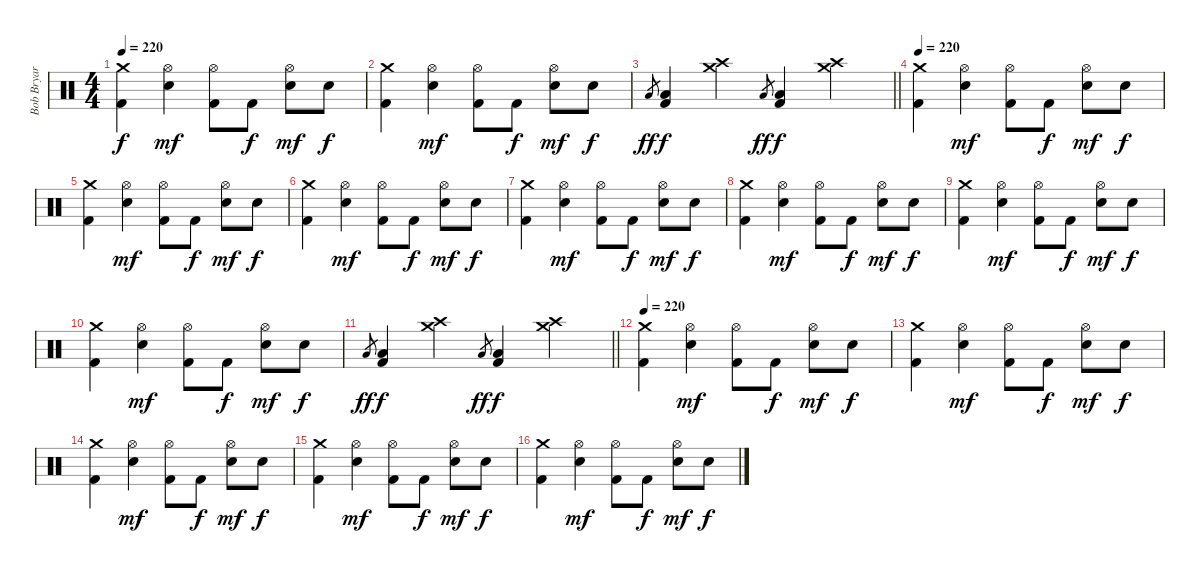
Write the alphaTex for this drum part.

\track ("Bob Bryar" "Bob Bryar") {instrument percussion}
\staff {score}
\articulation defaults
\ts (4 4)
\tempo 220
\clef neutral
\ks c
("Crash medium (hit)" "Kick (hit) 2").4{dy f} ("Hi-Hat (open)" "Electric Snare (hit)").4{dy mf} ("Hi-Hat (open)" "Kick (hit) 2").8 "Kick (hit) 2".8{dy f} ("Hi-Hat (open)" "Electric Snare (hit)").8{dy mf} "Electric Snare (hit)".8{dy f} |
("Crash medium (hit)" "Kick (hit) 2").4 ("Hi-Hat (open)" "Electric Snare (hit)").4{dy mf} ("Hi-Hat (open)" "Kick (hit) 2").8 "Kick (hit) 2".8{dy f} ("Hi-Hat (open)" "Electric Snare (hit)").8{dy mf} "Electric Snare (hit)".8{dy f} |
\barLineRight lightlight "Low Floor Tom (hit)".8{gr dy ff}
("Low Floor Tom (hit)" "Kick (hit) 2").4{dy f} ("Crash medium (hit)" "Crash high (hit)").4 "Low Floor Tom (hit)".8{gr dy ff} ("Low Floor Tom (hit)" "Kick (hit) 2").4{dy f} ("Crash medium (hit)" "Crash high (hit)").4 |
\tempo 220
("Crash medium (hit)" "Kick (hit) 2").4 ("Hi-Hat (open)" "Electric Snare (hit)").4{dy mf} ("Hi-Hat (open)" "Kick (hit) 2").8 "Kick (hit) 2".8{dy f} ("Hi-Hat (open)" "Electric Snare (hit)").8{dy mf} "Electric Snare (hit)".8{dy f} |
("Crash medium (hit)" "Kick (hit) 2").4 ("Hi-Hat (open)" "Electric Snare (hit)").4{dy mf} ("Hi-Hat (open)" "Kick (hit) 2").8 "Kick (hit) 2".8{dy f} ("Hi-Hat (open)" "Electric Snare (hit)").8{dy mf} "Electric Snare (hit)".8{dy f} |
("Crash medium (hit)" "Kick (hit) 2").4 ("Hi-Hat (open)" "Electric Snare (hit)").4{dy mf} ("Hi-Hat (open)" "Kick (hit) 2").8 "Kick (hit) 2".8{dy f} ("Hi-Hat (open)" "Electric Snare (hit)").8{dy mf} "Electric Snare (hit)".8{dy f} |
("Crash medium (hit)" "Kick (hit) 2").4 ("Hi-Hat (open)" "Electric Snare (hit)").4{dy mf} ("Hi-Hat (open)" "Kick (hit) 2").8 "Kick (hit) 2".8{dy f} ("Hi-Hat (open)" "Electric Snare (hit)").8{dy mf} "Electric Snare (hit)".8{dy f} |
("Crash medium (hit)" "Kick (hit) 2").4 ("Hi-Hat (open)" "Electric Snare (hit)").4{dy mf} ("Hi-Hat (open)" "Kick (hit) 2").8 "Kick (hit) 2".8{dy f} ("Hi-Hat (open)" "Electric Snare (hit)").8{dy mf} "Electric Snare (hit)".8{dy f} |
("Crash medium (hit)" "Kick (hit) 2").4 ("Hi-Hat (open)" "Electric Snare (hit)").4{dy mf} ("Hi-Hat (open)" "Kick (hit) 2").8 "Kick (hit) 2".8{dy f} ("Hi-Hat (open)" "Electric Snare (hit)").8{dy mf} "Electric Snare (hit)".8{dy f} |
("Crash medium (hit)" "Kick (hit) 2").4 ("Hi-Hat (open)" "Electric Snare (hit)").4{dy mf} ("Hi-Hat (open)" "Kick (hit) 2").8 "Kick (hit) 2".8{dy f} ("Hi-Hat (open)" "Electric Snare (hit)").8{dy mf} "Electric Snare (hit)".8{dy f} |
\barLineRight lightlight "Low Floor Tom (hit)".8{gr dy ff}
("Low Floor Tom (hit)" "Kick (hit) 2").4{dy f} ("Crash medium (hit)" "Crash high (hit)").4 "Low Floor Tom (hit)".8{gr dy ff} ("Low Floor Tom (hit)" "Kick (hit) 2").4{dy f} ("Crash medium (hit)" "Crash high (hit)").4 |
\tempo 220
("Crash medium (hit)" "Kick (hit) 2").4 ("Hi-Hat (open)" "Electric Snare (hit)").4{dy mf} ("Hi-Hat (open)" "Kick (hit) 2").8 "Kick (hit) 2".8{dy f} ("Hi-Hat (open)" "Electric Snare (hit)").8{dy mf} "Electric Snare (hit)".8{dy f} |
("Crash medium (hit)" "Kick (hit) 2").4 ("Hi-Hat (open)" "Electric Snare (hit)").4{dy mf} ("Hi-Hat (open)" "Kick (hit) 2").8 "Kick (hit) 2".8{dy f} ("Hi-Hat (open)" "Electric Snare (hit)").8{dy mf} "Electric Snare (hit)".8{dy f} |
("Crash medium (hit)" "Kick (hit) 2").4 ("Hi-Hat (open)" "Electric Snare (hit)").4{dy mf} ("Hi-Hat (open)" "Kick (hit) 2").8 "Kick (hit) 2".8{dy f} ("Hi-Hat (open)" "Electric Snare (hit)").8{dy mf} "Electric Snare (hit)".8{dy f} |
("Crash medium (hit)" "Kick (hit) 2").4 ("Hi-Hat (open)" "Electric Snare (hit)").4{dy mf} ("Hi-Hat (open)" "Kick (hit) 2").8 "Kick (hit) 2".8{dy f} ("Hi-Hat (open)" "Electric Snare (hit)").8{dy mf} "Electric Snare (hit)".8{dy f} |
("Crash medium (hit)" "Kick (hit) 2").4 ("Hi-Hat (open)" "Electric Snare (hit)").4{dy mf} ("Hi-Hat (open)" "Kick (hit) 2").8 "Kick (hit) 2".8{dy f} ("Hi-Hat (open)" "Electric Snare (hit)").8{dy mf} "Electric Snare (hit)".8{dy f}
